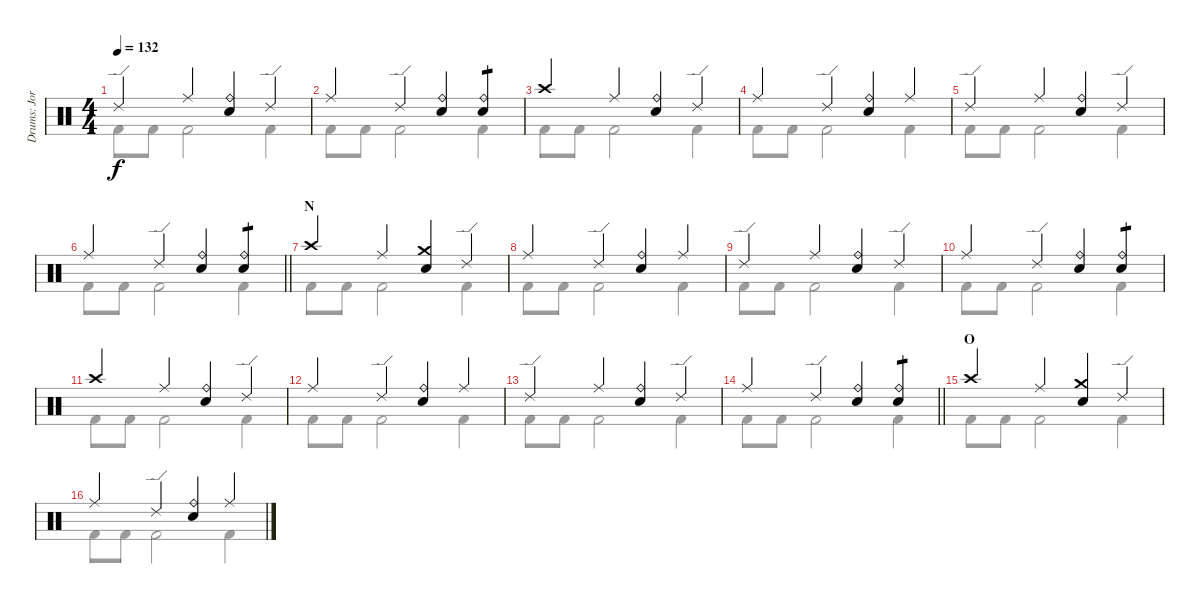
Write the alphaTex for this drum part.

\track ("Drums: Jorg" "Drums: Jor") {instrument percussion}
\staff {score}
\articulation defaults
\voice
\ts (4 4)
\tempo 132
\clef neutral
\ks c "Ride (edge) 2".4{dy f} "Ride (middle)".4
("Ride (bell)" "Snare (hit) 2").4 "Ride (edge) 2".4 |
"Ride (middle)".4 "Ride (edge) 2".4 ("Ride (bell)" "Snare (hit) 2").4 ("Ride (bell)" "Snare (hit) 2").4{tp 1} |
"Crash high (hit)".4 "Ride (middle)".4 ("Ride (bell)" "Snare (hit) 2").4 "Ride (edge) 2".4 |
"Ride (middle)".4 "Ride (edge) 2".4 ("Ride (bell)" "Snare (hit) 2").4 "Ride (middle)".4 |
"Ride (edge) 2".4 "Ride (middle)".4 ("Ride (bell)" "Snare (hit) 2").4 "Ride (edge) 2".4 |
\barLineRight lightlight "Ride (middle)".4 "Ride (edge) 2".4
("Ride (bell)" "Snare (hit) 2").4 ("Ride (bell)" "Snare (hit) 2").4{tp 1} |
\section ("" "N")
"Crash high (hit)".4 "Ride (middle)".4 ("Crash medium (hit)" "Snare (hit) 2").4 "Ride (edge) 2".4 |
"Ride (middle)".4 "Ride (edge) 2".4 ("Ride (bell)" "Snare (hit) 2").4 "Ride (middle)".4 |
"Ride (edge) 2".4 "Ride (middle)".4 ("Ride (bell)" "Snare (hit) 2").4 "Ride (edge) 2".4 |
"Ride (middle)".4 "Ride (edge) 2".4 ("Ride (bell)" "Snare (hit) 2").4 ("Ride (bell)" "Snare (hit) 2").4{tp 1} |
"Crash high (hit)".4 "Ride (middle)".4 ("Ride (bell)" "Snare (hit) 2").4 "Ride (edge) 2".4 |
"Ride (middle)".4 "Ride (edge) 2".4 ("Ride (bell)" "Snare (hit) 2").4 "Ride (middle)".4 |
"Ride (edge) 2".4 "Ride (middle)".4 ("Ride (bell)" "Snare (hit) 2").4 "Ride (edge) 2".4 |
\barLineRight lightlight "Ride (middle)".4 "Ride (edge) 2".4
("Ride (bell)" "Snare (hit) 2").4 ("Ride (bell)" "Snare (hit) 2").4{tp 1} |
\section ("" "O")
"Crash high (hit)".4 "Ride (middle)".4 ("Crash medium (hit)" "Snare (hit) 2").4 "Ride (edge) 2".4 |
"Ride (middle)".4 "Ride (edge) 2".4 ("Ride (bell)" "Snare (hit) 2").4 "Ride (middle)".4
\voice
\clef neutral
\ottava regular
\simile none
\ks c "Kick (hit) 2".8{dy f} "Kick (hit) 2".8 "Kick (hit) 2".2 "Kick (hit) 2".4
|
"Kick (hit) 2".8 "Kick (hit) 2".8 "Kick (hit) 2".2 "Kick (hit) 2".4 |
"Kick (hit) 2".8 "Kick (hit) 2".8 "Kick (hit) 2".2 "Kick (hit) 2".4 |
"Kick (hit) 2".8 "Kick (hit) 2".8 "Kick (hit) 2".2 "Kick (hit) 2".4 |
"Kick (hit) 2".8 "Kick (hit) 2".8 "Kick (hit) 2".2 "Kick (hit) 2".4 |
\barLineRight lightlight "Kick (hit) 2".8 "Kick (hit) 2".8 "Kick (hit) 2".2 "Kick (hit) 2".4
|
"Kick (hit) 2".8 "Kick (hit) 2".8 "Kick (hit) 2".2 "Kick (hit) 2".4 |
"Kick (hit) 2".8 "Kick (hit) 2".8 "Kick (hit) 2".2 "Kick (hit) 2".4 |
"Kick (hit) 2".8 "Kick (hit) 2".8 "Kick (hit) 2".2 "Kick (hit) 2".4 |
"Kick (hit) 2".8 "Kick (hit) 2".8 "Kick (hit) 2".2 "Kick (hit) 2".4 |
"Kick (hit) 2".8 "Kick (hit) 2".8 "Kick (hit) 2".2 "Kick (hit) 2".4 |
"Kick (hit) 2".8 "Kick (hit) 2".8 "Kick (hit) 2".2 "Kick (hit) 2".4 |
"Kick (hit) 2".8 "Kick (hit) 2".8 "Kick (hit) 2".2 "Kick (hit) 2".4 |
\barLineRight lightlight "Kick (hit) 2".8 "Kick (hit) 2".8 "Kick (hit) 2".2 "Kick (hit) 2".4
|
"Kick (hit) 2".8 "Kick (hit) 2".8 "Kick (hit) 2".2 "Kick (hit) 2".4 |
"Kick (hit) 2".8 "Kick (hit) 2".8 "Kick (hit) 2".2 "Kick (hit) 2".4
